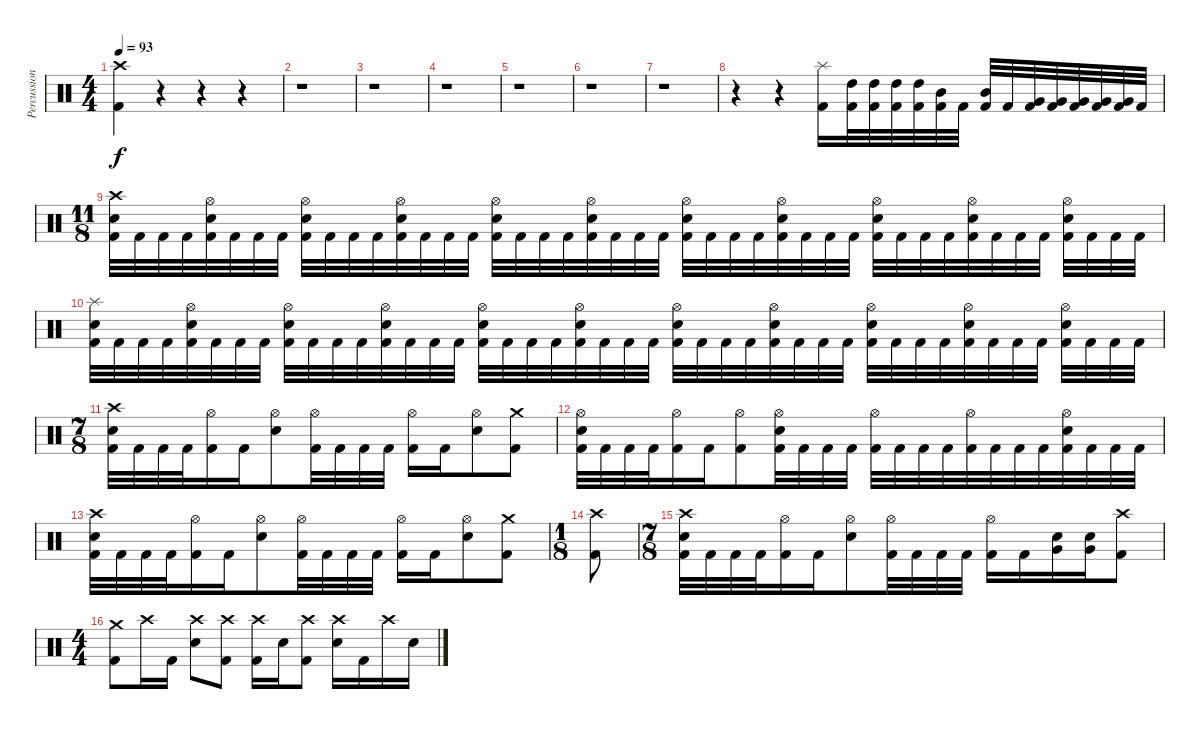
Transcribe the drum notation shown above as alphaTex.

\track ("Percussions" "Percussion") {instrument percussion}
\staff {score}
\articulation defaults
\ts (4 4)
\tempo 93
\clef neutral
\ks c
("Crash high (hit)" "Kick (hit) 2").4{dy f} r.4 r.4 r.4 |
r.1 |
r.1 |
r.1 |
r.1 |
r.1 |
r.1 |
r.4 r.4 ("Splash (hit)" "Kick (hit) 2").16 ("High Tom (hit)" "Kick (hit) 2").32 ("High Tom (hit)" "Kick (hit) 2").32 ("High Tom (hit)" "Kick (hit) 2").32 ("High Tom (hit)" "Kick (hit) 2").32 ("Mid Tom (hit)" "Kick (hit) 2").32 "Kick (hit) 2".32 ("Mid Tom (hit)" "Kick (hit) 2").32 "Kick (hit) 2".32 ("Very Low Tom (hit)" "Kick (hit) 2").32 ("Very Low Tom (hit)" "Kick (hit) 2").32 ("Very Low Tom (hit)" "Kick (hit) 2").32 ("Very Low Tom (hit)" "Kick (hit) 2").32 ("Very Low Tom (hit)" "Kick (hit) 2").32 "Kick (hit) 2".32 |
\ts (11 8)
("Crash high (hit)" "Electric Snare (hit)" "Kick (hit) 2").32 "Kick (hit) 2".32 "Kick (hit) 2".32 "Kick (hit) 2".32 ("Hi-Hat (open)" "Electric Snare (hit)" "Kick (hit) 2").32 "Kick (hit) 2".32 "Kick (hit) 2".32 "Kick (hit) 2".32 ("Hi-Hat (open)" "Electric Snare (hit)" "Kick (hit) 2").32 "Kick (hit) 2".32 "Kick (hit) 2".32 "Kick (hit) 2".32 ("Hi-Hat (open)" "Electric Snare (hit)" "Kick (hit) 2").32 "Kick (hit) 2".32 "Kick (hit) 2".32 "Kick (hit) 2".32 ("Hi-Hat (open)" "Electric Snare (hit)" "Kick (hit) 2").32 "Kick (hit) 2".32 "Kick (hit) 2".32 "Kick (hit) 2".32 ("Hi-Hat (open)" "Electric Snare (hit)" "Kick (hit) 2").32 "Kick (hit) 2".32 "Kick (hit) 2".32 "Kick (hit) 2".32 ("Hi-Hat (open)" "Electric Snare (hit)" "Kick (hit) 2").32 "Kick (hit) 2".32 "Kick (hit) 2".32 "Kick (hit) 2".32 ("Hi-Hat (open)" "Electric Snare (hit)" "Kick (hit) 2").32 "Kick (hit) 2".32 "Kick (hit) 2".32 "Kick (hit) 2".32 ("Hi-Hat (open)" "Electric Snare (hit)" "Kick (hit) 2").32 "Kick (hit) 2".32 "Kick (hit) 2".32 "Kick (hit) 2".32 ("Hi-Hat (open)" "Electric Snare (hit)" "Kick (hit) 2").32 "Kick (hit) 2".32 "Kick (hit) 2".32 "Kick (hit) 2".32 ("Hi-Hat (open)" "Electric Snare (hit)" "Kick (hit) 2").32 "Kick (hit) 2".32 "Kick (hit) 2".32 "Kick (hit) 2".32 |
("Splash (hit)" "Electric Snare (hit)" "Kick (hit) 2").32 "Kick (hit) 2".32 "Kick (hit) 2".32 "Kick (hit) 2".32 ("Hi-Hat (open)" "Electric Snare (hit)" "Kick (hit) 2").32 "Kick (hit) 2".32 "Kick (hit) 2".32 "Kick (hit) 2".32 ("Hi-Hat (open)" "Electric Snare (hit)" "Kick (hit) 2").32 "Kick (hit) 2".32 "Kick (hit) 2".32 "Kick (hit) 2".32 ("Hi-Hat (open)" "Electric Snare (hit)" "Kick (hit) 2").32 "Kick (hit) 2".32 "Kick (hit) 2".32 "Kick (hit) 2".32 ("Hi-Hat (open)" "Electric Snare (hit)" "Kick (hit) 2").32 "Kick (hit) 2".32 "Kick (hit) 2".32 "Kick (hit) 2".32 ("Hi-Hat (open)" "Electric Snare (hit)" "Kick (hit) 2").32 "Kick (hit) 2".32 "Kick (hit) 2".32 "Kick (hit) 2".32 ("Hi-Hat (open)" "Electric Snare (hit)" "Kick (hit) 2").32 "Kick (hit) 2".32 "Kick (hit) 2".32 "Kick (hit) 2".32 ("Hi-Hat (open)" "Electric Snare (hit)" "Kick (hit) 2").32 "Kick (hit) 2".32 "Kick (hit) 2".32 "Kick (hit) 2".32 ("Hi-Hat (open)" "Electric Snare (hit)" "Kick (hit) 2").32 "Kick (hit) 2".32 "Kick (hit) 2".32 "Kick (hit) 2".32 ("Hi-Hat (open)" "Electric Snare (hit)" "Kick (hit) 2").32 "Kick (hit) 2".32 "Kick (hit) 2".32 "Kick (hit) 2".32 ("Hi-Hat (open)" "Electric Snare (hit)" "Kick (hit) 2").32 "Kick (hit) 2".32 "Kick (hit) 2".32 "Kick (hit) 2".32 |
\ts (7 8)
("Crash high (hit)" "Electric Snare (hit)" "Kick (hit) 2").32 "Kick (hit) 2".32 "Kick (hit) 2".32 "Kick (hit) 2".32 ("Hi-Hat (open)" "Kick (hit) 2").16 "Kick (hit) 2".16 ("Hi-Hat (open)" "Electric Snare (hit)").8 ("Hi-Hat (open)" "Kick (hit) 2").32 "Kick (hit) 2".32 "Kick (hit) 2".32 "Kick (hit) 2".32 ("Hi-Hat (open)" "Kick (hit) 2").16 "Kick (hit) 2".16 ("Hi-Hat (open)" "Electric Snare (hit)").8 ("Crash medium (hit)" "Kick (hit) 2").8 |
("Hi-Hat (open)" "Electric Snare (hit)" "Kick (hit) 2").32 "Kick (hit) 2".32 "Kick (hit) 2".32 "Kick (hit) 2".32 ("Hi-Hat (open)" "Kick (hit) 2").16 "Kick (hit) 2".16 ("Hi-Hat (open)" "Kick (hit) 2").8 ("Hi-Hat (open)" "Electric Snare (hit)" "Kick (hit) 2").32 "Kick (hit) 2".32 "Kick (hit) 2".32 "Kick (hit) 2".32 ("Hi-Hat (open)" "Kick (hit) 2").32 "Kick (hit) 2".32 "Kick (hit) 2".32 "Kick (hit) 2".32 ("Hi-Hat (open)" "Kick (hit) 2").32 "Kick (hit) 2".32 "Kick (hit) 2".32 "Kick (hit) 2".32 ("Hi-Hat (open)" "Electric Snare (hit)" "Kick (hit) 2").32 "Kick (hit) 2".32 "Kick (hit) 2".32 "Kick (hit) 2".32 |
("Crash high (hit)" "Electric Snare (hit)" "Kick (hit) 2").32 "Kick (hit) 2".32 "Kick (hit) 2".32 "Kick (hit) 2".32 ("Hi-Hat (open)" "Kick (hit) 2").16 "Kick (hit) 2".16 ("Hi-Hat (open)" "Electric Snare (hit)").8 ("Hi-Hat (open)" "Kick (hit) 2").32 "Kick (hit) 2".32 "Kick (hit) 2".32 "Kick (hit) 2".32 ("Hi-Hat (open)" "Kick (hit) 2").16 "Kick (hit) 2".16 ("Hi-Hat (open)" "Electric Snare (hit)").8 ("Crash medium (hit)" "Kick (hit) 2").8 |
\ts (1 8)
("Crash high (hit)" "Kick (hit) 2").8 |
\ts (7 8)
("Crash high (hit)" "Electric Snare (hit)" "Kick (hit) 2").32 "Kick (hit) 2".32 "Kick (hit) 2".32 "Kick (hit) 2".32 ("Hi-Hat (open)" "Kick (hit) 2").16 "Kick (hit) 2".16 ("Hi-Hat (open)" "Electric Snare (hit)").8 ("Hi-Hat (open)" "Kick (hit) 2").32 "Kick (hit) 2".32 "Kick (hit) 2".32 "Kick (hit) 2".32 ("Hi-Hat (open)" "Kick (hit) 2").16 "Kick (hit) 2".16 ("Electric Snare (hit)" "Very Low Tom (hit)").16 ("Electric Snare (hit)" "Very Low Tom (hit)").16 ("Crash high (hit)" "Kick (hit) 2").8 |
\ts (4 4)
("Crash medium (hit)" "Kick (hit) 2").8 "Crash high (hit)".16 "Kick (hit) 2".16 ("Crash high (hit)" "Electric Snare (hit)").8 ("Crash high (hit)" "Kick (hit) 2").8 ("Crash high (hit)" "Kick (hit) 2").16 "Electric Snare (hit)".16 ("Crash high (hit)" "Kick (hit) 2").8 ("Crash high (hit)" "Electric Snare (hit)").16 "Kick (hit) 2".16 "Crash high (hit)".16 "Electric Snare (hit)".16
